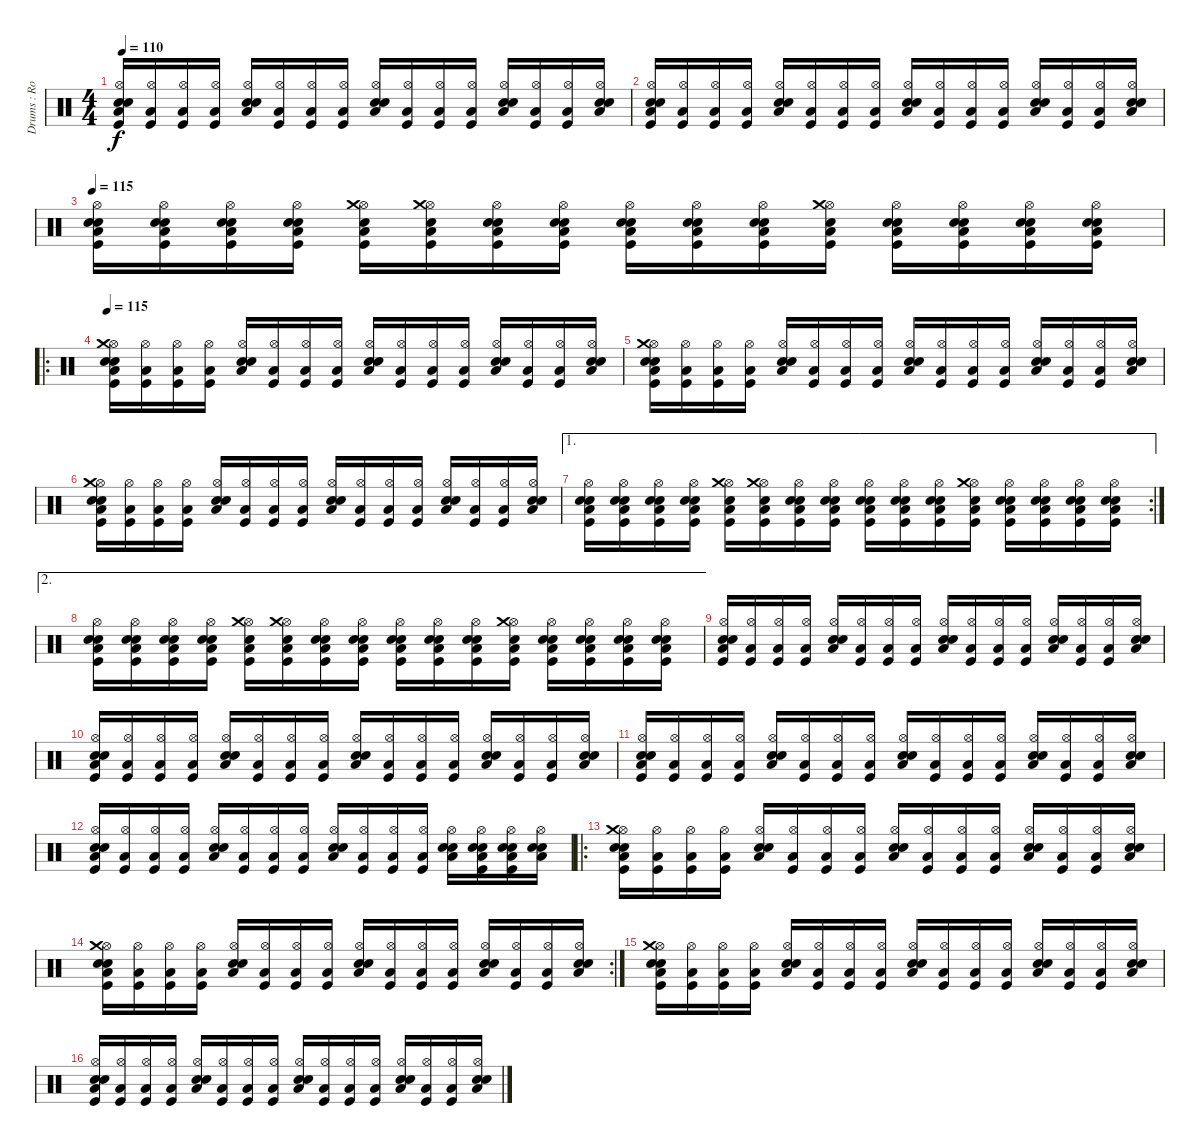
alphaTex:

\track ("Drums : Rob Kurth" "Drums : Ro") {instrument percussion}
\staff {score}
\articulation defaults
\ts (4 4)
\tempo 110
\clef neutral
\ks c
("Low Floor Tom (hit)" "Hi-Hat (open)" "Electric Snare (hit)" "Kick (hit)" "Snare (hit) 2").16{dy f} ("Low Floor Tom (hit)" "Hi-Hat (open)" "Kick (hit)").16 ("Low Floor Tom (hit)" "Hi-Hat (open)" "Kick (hit)").16 ("Low Floor Tom (hit)" "Hi-Hat (open)" "Kick (hit)").16 ("Low Floor Tom (hit)" "Hi-Hat (open)" "Electric Snare (hit)" "Snare (hit) 2").16 ("Low Floor Tom (hit)" "Hi-Hat (open)" "Kick (hit)").16 ("Low Floor Tom (hit)" "Hi-Hat (open)" "Kick (hit)").16 ("Low Floor Tom (hit)" "Hi-Hat (open)" "Kick (hit)").16 ("Low Floor Tom (hit)" "Hi-Hat (open)" "Electric Snare (hit)" "Snare (hit) 2").16 ("Low Floor Tom (hit)" "Hi-Hat (open)" "Kick (hit)").16 ("Low Floor Tom (hit)" "Hi-Hat (open)" "Kick (hit)").16 ("Low Floor Tom (hit)" "Hi-Hat (open)" "Kick (hit)").16 ("Low Floor Tom (hit)" "Hi-Hat (open)" "Electric Snare (hit)" "Snare (hit) 2").16 ("Low Floor Tom (hit)" "Hi-Hat (open)" "Kick (hit)").16 ("Low Floor Tom (hit)" "Hi-Hat (open)" "Kick (hit)").16 ("Low Floor Tom (hit)" "Hi-Hat (open)" "Electric Snare (hit)" "Snare (hit) 2").16 |
("Low Floor Tom (hit)" "Hi-Hat (open)" "Electric Snare (hit)" "Kick (hit)" "Snare (hit) 2").16 ("Low Floor Tom (hit)" "Hi-Hat (open)" "Kick (hit)").16 ("Low Floor Tom (hit)" "Hi-Hat (open)" "Kick (hit)").16 ("Low Floor Tom (hit)" "Hi-Hat (open)" "Kick (hit)").16 ("Low Floor Tom (hit)" "Hi-Hat (open)" "Electric Snare (hit)" "Snare (hit) 2").16 ("Low Floor Tom (hit)" "Hi-Hat (open)" "Kick (hit)").16 ("Low Floor Tom (hit)" "Hi-Hat (open)" "Kick (hit)").16 ("Low Floor Tom (hit)" "Hi-Hat (open)" "Kick (hit)").16 ("Low Floor Tom (hit)" "Hi-Hat (open)" "Electric Snare (hit)" "Snare (hit) 2").16 ("Low Floor Tom (hit)" "Hi-Hat (open)" "Kick (hit)").16 ("Low Floor Tom (hit)" "Hi-Hat (open)" "Kick (hit)").16 ("Low Floor Tom (hit)" "Hi-Hat (open)" "Kick (hit)").16 ("Low Floor Tom (hit)" "Hi-Hat (open)" "Electric Snare (hit)" "Snare (hit) 2").16 ("Low Floor Tom (hit)" "Hi-Hat (open)" "Kick (hit)").16 ("Low Floor Tom (hit)" "Hi-Hat (open)" "Kick (hit)").16 ("Low Floor Tom (hit)" "Hi-Hat (open)" "Electric Snare (hit)" "Snare (hit) 2").16 |
\tempo 115
("Kick (hit)" "Low Floor Tom (hit)" "Hi-Hat (open)" "Electric Snare (hit)" "Snare (hit) 2").16 ("Kick (hit)" "Low Floor Tom (hit)" "Hi-Hat (open)" "Electric Snare (hit)" "Snare (hit) 2").16 ("Kick (hit)" "Low Floor Tom (hit)" "Hi-Hat (open)" "Electric Snare (hit)" "Snare (hit) 2").16 ("Kick (hit)" "Low Floor Tom (hit)" "Hi-Hat (open)" "Electric Snare (hit)" "Snare (hit) 2").16 ("Kick (hit)" "Low Floor Tom (hit)" "Hi-Hat (open)" "Crash medium (hit)" "Snare (hit) 2").16 ("Kick (hit)" "Low Floor Tom (hit)" "Hi-Hat (open)" "Crash medium (hit)" "Snare (hit) 2").16 ("Kick (hit)" "Low Floor Tom (hit)" "Hi-Hat (open)" "Electric Snare (hit)" "Snare (hit) 2").16 ("Kick (hit)" "Low Floor Tom (hit)" "Hi-Hat (open)" "Electric Snare (hit)" "Snare (hit) 2").16 ("Kick (hit)" "Low Floor Tom (hit)" "Hi-Hat (open)" "Electric Snare (hit)" "Snare (hit) 2").16 ("Kick (hit)" "Low Floor Tom (hit)" "Hi-Hat (open)" "Electric Snare (hit)" "Snare (hit) 2").16 ("Kick (hit)" "Low Floor Tom (hit)" "Hi-Hat (open)" "Electric Snare (hit)" "Snare (hit) 2").16 ("Kick (hit)" "Low Floor Tom (hit)" "Hi-Hat (open)" "Crash medium (hit)" "Snare (hit) 2").16 ("Kick (hit)" "Low Floor Tom (hit)" "Hi-Hat (open)" "Electric Snare (hit)" "Snare (hit) 2").16 ("Kick (hit)" "Low Floor Tom (hit)" "Hi-Hat (open)" "Electric Snare (hit)" "Snare (hit) 2").16 ("Kick (hit)" "Low Floor Tom (hit)" "Hi-Hat (open)" "Electric Snare (hit)" "Snare (hit) 2").16 ("Kick (hit)" "Low Floor Tom (hit)" "Hi-Hat (open)" "Electric Snare (hit)" "Snare (hit) 2").16 |
\ro
\tempo 115
("Low Floor Tom (hit)" "Hi-Hat (open)" "Electric Snare (hit)" "Kick (hit)" "Snare (hit) 2" "Crash medium (hit)").16 ("Low Floor Tom (hit)" "Hi-Hat (open)" "Kick (hit)").16 ("Low Floor Tom (hit)" "Hi-Hat (open)" "Kick (hit)").16 ("Low Floor Tom (hit)" "Hi-Hat (open)" "Kick (hit)").16 ("Low Floor Tom (hit)" "Hi-Hat (open)" "Electric Snare (hit)" "Snare (hit) 2").16 ("Low Floor Tom (hit)" "Hi-Hat (open)" "Kick (hit)").16 ("Low Floor Tom (hit)" "Hi-Hat (open)" "Kick (hit)").16 ("Low Floor Tom (hit)" "Hi-Hat (open)" "Kick (hit)").16 ("Low Floor Tom (hit)" "Hi-Hat (open)" "Electric Snare (hit)" "Snare (hit) 2").16 ("Low Floor Tom (hit)" "Hi-Hat (open)" "Kick (hit)").16 ("Low Floor Tom (hit)" "Hi-Hat (open)" "Kick (hit)").16 ("Low Floor Tom (hit)" "Hi-Hat (open)" "Kick (hit)").16 ("Low Floor Tom (hit)" "Hi-Hat (open)" "Electric Snare (hit)" "Snare (hit) 2").16 ("Low Floor Tom (hit)" "Hi-Hat (open)" "Kick (hit)").16 ("Low Floor Tom (hit)" "Hi-Hat (open)" "Kick (hit)").16 ("Low Floor Tom (hit)" "Hi-Hat (open)" "Electric Snare (hit)" "Snare (hit) 2").16 |
("Low Floor Tom (hit)" "Hi-Hat (open)" "Electric Snare (hit)" "Kick (hit)" "Snare (hit) 2" "Crash medium (hit)").16 ("Low Floor Tom (hit)" "Hi-Hat (open)" "Kick (hit)").16 ("Low Floor Tom (hit)" "Hi-Hat (open)" "Kick (hit)").16 ("Low Floor Tom (hit)" "Hi-Hat (open)" "Kick (hit)").16 ("Low Floor Tom (hit)" "Hi-Hat (open)" "Electric Snare (hit)" "Snare (hit) 2").16 ("Low Floor Tom (hit)" "Hi-Hat (open)" "Kick (hit)").16 ("Low Floor Tom (hit)" "Hi-Hat (open)" "Kick (hit)").16 ("Low Floor Tom (hit)" "Hi-Hat (open)" "Kick (hit)").16 ("Low Floor Tom (hit)" "Hi-Hat (open)" "Electric Snare (hit)" "Snare (hit) 2").16 ("Low Floor Tom (hit)" "Hi-Hat (open)" "Kick (hit)").16 ("Low Floor Tom (hit)" "Hi-Hat (open)" "Kick (hit)").16 ("Low Floor Tom (hit)" "Hi-Hat (open)" "Kick (hit)").16 ("Low Floor Tom (hit)" "Hi-Hat (open)" "Electric Snare (hit)" "Snare (hit) 2").16 ("Low Floor Tom (hit)" "Hi-Hat (open)" "Kick (hit)").16 ("Low Floor Tom (hit)" "Hi-Hat (open)" "Kick (hit)").16 ("Low Floor Tom (hit)" "Hi-Hat (open)" "Electric Snare (hit)" "Snare (hit) 2").16 |
("Low Floor Tom (hit)" "Hi-Hat (open)" "Electric Snare (hit)" "Kick (hit)" "Snare (hit) 2" "Crash medium (hit)").16 ("Low Floor Tom (hit)" "Hi-Hat (open)" "Kick (hit)").16 ("Low Floor Tom (hit)" "Hi-Hat (open)" "Kick (hit)").16 ("Low Floor Tom (hit)" "Hi-Hat (open)" "Kick (hit)").16 ("Low Floor Tom (hit)" "Hi-Hat (open)" "Electric Snare (hit)" "Snare (hit) 2").16 ("Low Floor Tom (hit)" "Hi-Hat (open)" "Kick (hit)").16 ("Low Floor Tom (hit)" "Hi-Hat (open)" "Kick (hit)").16 ("Low Floor Tom (hit)" "Hi-Hat (open)" "Kick (hit)").16 ("Low Floor Tom (hit)" "Hi-Hat (open)" "Electric Snare (hit)" "Snare (hit) 2").16 ("Low Floor Tom (hit)" "Hi-Hat (open)" "Kick (hit)").16 ("Low Floor Tom (hit)" "Hi-Hat (open)" "Kick (hit)").16 ("Low Floor Tom (hit)" "Hi-Hat (open)" "Kick (hit)").16 ("Low Floor Tom (hit)" "Hi-Hat (open)" "Electric Snare (hit)" "Snare (hit) 2").16 ("Low Floor Tom (hit)" "Hi-Hat (open)" "Kick (hit)").16 ("Low Floor Tom (hit)" "Hi-Hat (open)" "Kick (hit)").16 ("Low Floor Tom (hit)" "Hi-Hat (open)" "Electric Snare (hit)" "Snare (hit) 2").16 |
\ae 1
\rc 2
("Kick (hit)" "Low Floor Tom (hit)" "Hi-Hat (open)" "Electric Snare (hit)" "Snare (hit) 2").16 ("Kick (hit)" "Low Floor Tom (hit)" "Hi-Hat (open)" "Electric Snare (hit)" "Snare (hit) 2").16 ("Kick (hit)" "Low Floor Tom (hit)" "Hi-Hat (open)" "Electric Snare (hit)" "Snare (hit) 2").16 ("Kick (hit)" "Low Floor Tom (hit)" "Hi-Hat (open)" "Electric Snare (hit)" "Snare (hit) 2").16 ("Kick (hit)" "Low Floor Tom (hit)" "Hi-Hat (open)" "Crash medium (hit)" "Snare (hit) 2").16 ("Kick (hit)" "Low Floor Tom (hit)" "Hi-Hat (open)" "Crash medium (hit)" "Snare (hit) 2").16 ("Kick (hit)" "Low Floor Tom (hit)" "Hi-Hat (open)" "Electric Snare (hit)" "Snare (hit) 2").16 ("Kick (hit)" "Low Floor Tom (hit)" "Hi-Hat (open)" "Electric Snare (hit)" "Snare (hit) 2").16 ("Kick (hit)" "Low Floor Tom (hit)" "Hi-Hat (open)" "Electric Snare (hit)" "Snare (hit) 2").16 ("Kick (hit)" "Low Floor Tom (hit)" "Hi-Hat (open)" "Electric Snare (hit)" "Snare (hit) 2").16 ("Kick (hit)" "Low Floor Tom (hit)" "Hi-Hat (open)" "Electric Snare (hit)" "Snare (hit) 2").16 ("Kick (hit)" "Low Floor Tom (hit)" "Hi-Hat (open)" "Crash medium (hit)" "Snare (hit) 2").16 ("Kick (hit)" "Low Floor Tom (hit)" "Hi-Hat (open)" "Electric Snare (hit)" "Snare (hit) 2").16 ("Kick (hit)" "Low Floor Tom (hit)" "Hi-Hat (open)" "Electric Snare (hit)" "Snare (hit) 2").16 ("Kick (hit)" "Low Floor Tom (hit)" "Hi-Hat (open)" "Electric Snare (hit)" "Snare (hit) 2").16 ("Kick (hit)" "Low Floor Tom (hit)" "Hi-Hat (open)" "Electric Snare (hit)" "Snare (hit) 2").16 |
\ae 2
("Kick (hit)" "Low Floor Tom (hit)" "Hi-Hat (open)" "Electric Snare (hit)" "Snare (hit) 2").16 ("Kick (hit)" "Low Floor Tom (hit)" "Hi-Hat (open)" "Electric Snare (hit)" "Snare (hit) 2").16 ("Kick (hit)" "Low Floor Tom (hit)" "Hi-Hat (open)" "Electric Snare (hit)" "Snare (hit) 2").16 ("Kick (hit)" "Low Floor Tom (hit)" "Hi-Hat (open)" "Electric Snare (hit)" "Snare (hit) 2").16 ("Kick (hit)" "Low Floor Tom (hit)" "Hi-Hat (open)" "Crash medium (hit)" "Snare (hit) 2").16 ("Kick (hit)" "Low Floor Tom (hit)" "Hi-Hat (open)" "Crash medium (hit)" "Snare (hit) 2").16 ("Kick (hit)" "Low Floor Tom (hit)" "Hi-Hat (open)" "Electric Snare (hit)" "Snare (hit) 2").16 ("Kick (hit)" "Low Floor Tom (hit)" "Hi-Hat (open)" "Electric Snare (hit)" "Snare (hit) 2").16 ("Kick (hit)" "Low Floor Tom (hit)" "Hi-Hat (open)" "Electric Snare (hit)" "Snare (hit) 2").16 ("Kick (hit)" "Low Floor Tom (hit)" "Hi-Hat (open)" "Electric Snare (hit)" "Snare (hit) 2").16 ("Kick (hit)" "Low Floor Tom (hit)" "Hi-Hat (open)" "Electric Snare (hit)" "Snare (hit) 2").16 ("Kick (hit)" "Low Floor Tom (hit)" "Hi-Hat (open)" "Crash medium (hit)" "Snare (hit) 2").16 ("Kick (hit)" "Low Floor Tom (hit)" "Hi-Hat (open)" "Electric Snare (hit)" "Snare (hit) 2").16 ("Kick (hit)" "Low Floor Tom (hit)" "Hi-Hat (open)" "Electric Snare (hit)" "Snare (hit) 2").16 ("Kick (hit)" "Low Floor Tom (hit)" "Hi-Hat (open)" "Electric Snare (hit)" "Snare (hit) 2").16 ("Kick (hit)" "Low Floor Tom (hit)" "Hi-Hat (open)" "Electric Snare (hit)" "Snare (hit) 2").16 |
("Low Floor Tom (hit)" "Hi-Hat (open)" "Electric Snare (hit)" "Kick (hit)" "Snare (hit) 2").16 ("Low Floor Tom (hit)" "Hi-Hat (open)" "Kick (hit)").16 ("Low Floor Tom (hit)" "Hi-Hat (open)" "Kick (hit)").16 ("Low Floor Tom (hit)" "Hi-Hat (open)" "Kick (hit)").16 ("Low Floor Tom (hit)" "Hi-Hat (open)" "Electric Snare (hit)" "Snare (hit) 2").16 ("Low Floor Tom (hit)" "Hi-Hat (open)" "Kick (hit)").16 ("Low Floor Tom (hit)" "Hi-Hat (open)" "Kick (hit)").16 ("Low Floor Tom (hit)" "Hi-Hat (open)" "Kick (hit)").16 ("Low Floor Tom (hit)" "Hi-Hat (open)" "Electric Snare (hit)" "Snare (hit) 2").16 ("Low Floor Tom (hit)" "Hi-Hat (open)" "Kick (hit)").16 ("Low Floor Tom (hit)" "Hi-Hat (open)" "Kick (hit)").16 ("Low Floor Tom (hit)" "Hi-Hat (open)" "Kick (hit)").16 ("Low Floor Tom (hit)" "Hi-Hat (open)" "Electric Snare (hit)" "Snare (hit) 2").16 ("Low Floor Tom (hit)" "Hi-Hat (open)" "Kick (hit)").16 ("Low Floor Tom (hit)" "Hi-Hat (open)" "Kick (hit)").16 ("Low Floor Tom (hit)" "Hi-Hat (open)" "Electric Snare (hit)" "Snare (hit) 2").16 |
("Low Floor Tom (hit)" "Hi-Hat (open)" "Electric Snare (hit)" "Kick (hit)" "Snare (hit) 2").16 ("Low Floor Tom (hit)" "Hi-Hat (open)" "Kick (hit)").16 ("Low Floor Tom (hit)" "Hi-Hat (open)" "Kick (hit)").16 ("Low Floor Tom (hit)" "Hi-Hat (open)" "Kick (hit)").16 ("Low Floor Tom (hit)" "Hi-Hat (open)" "Electric Snare (hit)" "Snare (hit) 2").16 ("Low Floor Tom (hit)" "Hi-Hat (open)" "Kick (hit)").16 ("Low Floor Tom (hit)" "Hi-Hat (open)" "Kick (hit)").16 ("Low Floor Tom (hit)" "Hi-Hat (open)" "Kick (hit)").16 ("Low Floor Tom (hit)" "Hi-Hat (open)" "Electric Snare (hit)" "Snare (hit) 2").16 ("Low Floor Tom (hit)" "Hi-Hat (open)" "Kick (hit)").16 ("Low Floor Tom (hit)" "Hi-Hat (open)" "Kick (hit)").16 ("Low Floor Tom (hit)" "Hi-Hat (open)" "Kick (hit)").16 ("Low Floor Tom (hit)" "Hi-Hat (open)" "Electric Snare (hit)" "Snare (hit) 2").16 ("Low Floor Tom (hit)" "Hi-Hat (open)" "Kick (hit)").16 ("Low Floor Tom (hit)" "Hi-Hat (open)" "Kick (hit)").16 ("Low Floor Tom (hit)" "Hi-Hat (open)" "Electric Snare (hit)" "Snare (hit) 2").16 |
("Low Floor Tom (hit)" "Hi-Hat (open)" "Electric Snare (hit)" "Kick (hit)" "Snare (hit) 2").16 ("Low Floor Tom (hit)" "Hi-Hat (open)" "Kick (hit)").16 ("Low Floor Tom (hit)" "Hi-Hat (open)" "Kick (hit)").16 ("Low Floor Tom (hit)" "Hi-Hat (open)" "Kick (hit)").16 ("Low Floor Tom (hit)" "Hi-Hat (open)" "Electric Snare (hit)" "Snare (hit) 2").16 ("Low Floor Tom (hit)" "Hi-Hat (open)" "Kick (hit)").16 ("Low Floor Tom (hit)" "Hi-Hat (open)" "Kick (hit)").16 ("Low Floor Tom (hit)" "Hi-Hat (open)" "Kick (hit)").16 ("Low Floor Tom (hit)" "Hi-Hat (open)" "Electric Snare (hit)" "Snare (hit) 2").16 ("Low Floor Tom (hit)" "Hi-Hat (open)" "Kick (hit)").16 ("Low Floor Tom (hit)" "Hi-Hat (open)" "Kick (hit)").16 ("Low Floor Tom (hit)" "Hi-Hat (open)" "Kick (hit)").16 ("Low Floor Tom (hit)" "Hi-Hat (open)" "Electric Snare (hit)" "Snare (hit) 2").16 ("Low Floor Tom (hit)" "Hi-Hat (open)" "Kick (hit)").16 ("Low Floor Tom (hit)" "Hi-Hat (open)" "Kick (hit)").16 ("Low Floor Tom (hit)" "Hi-Hat (open)" "Electric Snare (hit)" "Snare (hit) 2").16 |
("Low Floor Tom (hit)" "Hi-Hat (open)" "Electric Snare (hit)" "Kick (hit)" "Snare (hit) 2").16 ("Low Floor Tom (hit)" "Hi-Hat (open)" "Kick (hit)").16 ("Low Floor Tom (hit)" "Hi-Hat (open)" "Kick (hit)").16 ("Low Floor Tom (hit)" "Hi-Hat (open)" "Kick (hit)").16 ("Low Floor Tom (hit)" "Hi-Hat (open)" "Electric Snare (hit)" "Snare (hit) 2").16 ("Low Floor Tom (hit)" "Hi-Hat (open)" "Kick (hit)").16 ("Low Floor Tom (hit)" "Hi-Hat (open)" "Kick (hit)").16 ("Low Floor Tom (hit)" "Hi-Hat (open)" "Kick (hit)").16 ("Low Floor Tom (hit)" "Hi-Hat (open)" "Electric Snare (hit)" "Snare (hit) 2").16 ("Low Floor Tom (hit)" "Hi-Hat (open)" "Kick (hit)").16 ("Low Floor Tom (hit)" "Hi-Hat (open)" "Kick (hit)").16 ("Low Floor Tom (hit)" "Hi-Hat (open)" "Kick (hit)").16 ("Low Floor Tom (hit)" "Hi-Hat (open)" "Electric Snare (hit)" "Snare (hit) 2").16 ("Electric Snare (hit)" "Snare (hit) 2" "Low Floor Tom (hit)" "Hi-Hat (open)" "Kick (hit)").16 ("Electric Snare (hit)" "Snare (hit) 2" "Low Floor Tom (hit)" "Hi-Hat (open)" "Kick (hit)").16 ("Low Floor Tom (hit)" "Hi-Hat (open)" "Electric Snare (hit)" "Snare (hit) 2").16 |
\ro
("Low Floor Tom (hit)" "Hi-Hat (open)" "Electric Snare (hit)" "Kick (hit)" "Snare (hit) 2" "Crash medium (hit)").16 ("Low Floor Tom (hit)" "Hi-Hat (open)" "Kick (hit)").16 ("Low Floor Tom (hit)" "Hi-Hat (open)" "Kick (hit)").16 ("Low Floor Tom (hit)" "Hi-Hat (open)" "Kick (hit)").16 ("Low Floor Tom (hit)" "Hi-Hat (open)" "Electric Snare (hit)" "Snare (hit) 2").16 ("Low Floor Tom (hit)" "Hi-Hat (open)" "Kick (hit)").16 ("Low Floor Tom (hit)" "Hi-Hat (open)" "Kick (hit)").16 ("Low Floor Tom (hit)" "Hi-Hat (open)" "Kick (hit)").16 ("Low Floor Tom (hit)" "Hi-Hat (open)" "Electric Snare (hit)" "Snare (hit) 2").16 ("Low Floor Tom (hit)" "Hi-Hat (open)" "Kick (hit)").16 ("Low Floor Tom (hit)" "Hi-Hat (open)" "Kick (hit)").16 ("Low Floor Tom (hit)" "Hi-Hat (open)" "Kick (hit)").16 ("Low Floor Tom (hit)" "Hi-Hat (open)" "Electric Snare (hit)" "Snare (hit) 2").16 ("Low Floor Tom (hit)" "Hi-Hat (open)" "Kick (hit)").16 ("Low Floor Tom (hit)" "Hi-Hat (open)" "Kick (hit)").16 ("Low Floor Tom (hit)" "Hi-Hat (open)" "Electric Snare (hit)" "Snare (hit) 2").16 |
\rc 2
("Low Floor Tom (hit)" "Hi-Hat (open)" "Electric Snare (hit)" "Kick (hit)" "Snare (hit) 2" "Crash medium (hit)").16 ("Low Floor Tom (hit)" "Hi-Hat (open)" "Kick (hit)").16 ("Low Floor Tom (hit)" "Hi-Hat (open)" "Kick (hit)").16 ("Low Floor Tom (hit)" "Hi-Hat (open)" "Kick (hit)").16 ("Low Floor Tom (hit)" "Hi-Hat (open)" "Electric Snare (hit)" "Snare (hit) 2").16 ("Low Floor Tom (hit)" "Hi-Hat (open)" "Kick (hit)").16 ("Low Floor Tom (hit)" "Hi-Hat (open)" "Kick (hit)").16 ("Low Floor Tom (hit)" "Hi-Hat (open)" "Kick (hit)").16 ("Low Floor Tom (hit)" "Hi-Hat (open)" "Electric Snare (hit)" "Snare (hit) 2").16 ("Low Floor Tom (hit)" "Hi-Hat (open)" "Kick (hit)").16 ("Low Floor Tom (hit)" "Hi-Hat (open)" "Kick (hit)").16 ("Low Floor Tom (hit)" "Hi-Hat (open)" "Kick (hit)").16 ("Low Floor Tom (hit)" "Hi-Hat (open)" "Electric Snare (hit)" "Snare (hit) 2").16 ("Low Floor Tom (hit)" "Hi-Hat (open)" "Kick (hit)").16 ("Low Floor Tom (hit)" "Hi-Hat (open)" "Kick (hit)").16 ("Low Floor Tom (hit)" "Hi-Hat (open)" "Electric Snare (hit)" "Snare (hit) 2").16 |
("Low Floor Tom (hit)" "Hi-Hat (open)" "Electric Snare (hit)" "Kick (hit)" "Snare (hit) 2" "Crash medium (hit)").16 ("Low Floor Tom (hit)" "Hi-Hat (open)" "Kick (hit)").16 ("Low Floor Tom (hit)" "Hi-Hat (open)" "Kick (hit)").16 ("Low Floor Tom (hit)" "Hi-Hat (open)" "Kick (hit)").16 ("Low Floor Tom (hit)" "Hi-Hat (open)" "Electric Snare (hit)" "Snare (hit) 2").16 ("Low Floor Tom (hit)" "Hi-Hat (open)" "Kick (hit)").16 ("Low Floor Tom (hit)" "Hi-Hat (open)" "Kick (hit)").16 ("Low Floor Tom (hit)" "Hi-Hat (open)" "Kick (hit)").16 ("Low Floor Tom (hit)" "Hi-Hat (open)" "Electric Snare (hit)" "Snare (hit) 2").16 ("Low Floor Tom (hit)" "Hi-Hat (open)" "Kick (hit)").16 ("Low Floor Tom (hit)" "Hi-Hat (open)" "Kick (hit)").16 ("Low Floor Tom (hit)" "Hi-Hat (open)" "Kick (hit)").16 ("Low Floor Tom (hit)" "Hi-Hat (open)" "Electric Snare (hit)" "Snare (hit) 2").16 ("Low Floor Tom (hit)" "Hi-Hat (open)" "Kick (hit)").16 ("Low Floor Tom (hit)" "Hi-Hat (open)" "Kick (hit)").16 ("Low Floor Tom (hit)" "Hi-Hat (open)" "Electric Snare (hit)" "Snare (hit) 2").16 |
("Low Floor Tom (hit)" "Hi-Hat (open)" "Electric Snare (hit)" "Kick (hit)" "Snare (hit) 2").16 ("Low Floor Tom (hit)" "Hi-Hat (open)" "Kick (hit)").16 ("Low Floor Tom (hit)" "Hi-Hat (open)" "Kick (hit)").16 ("Low Floor Tom (hit)" "Hi-Hat (open)" "Kick (hit)").16 ("Low Floor Tom (hit)" "Hi-Hat (open)" "Electric Snare (hit)" "Snare (hit) 2").16 ("Low Floor Tom (hit)" "Hi-Hat (open)" "Kick (hit)").16 ("Low Floor Tom (hit)" "Hi-Hat (open)" "Kick (hit)").16 ("Low Floor Tom (hit)" "Hi-Hat (open)" "Kick (hit)").16 ("Low Floor Tom (hit)" "Hi-Hat (open)" "Electric Snare (hit)" "Snare (hit) 2").16 ("Low Floor Tom (hit)" "Hi-Hat (open)" "Kick (hit)").16 ("Low Floor Tom (hit)" "Hi-Hat (open)" "Kick (hit)").16 ("Low Floor Tom (hit)" "Hi-Hat (open)" "Kick (hit)").16 ("Low Floor Tom (hit)" "Hi-Hat (open)" "Electric Snare (hit)" "Snare (hit) 2").16 ("Low Floor Tom (hit)" "Hi-Hat (open)" "Kick (hit)").16 ("Low Floor Tom (hit)" "Hi-Hat (open)" "Kick (hit)").16 ("Low Floor Tom (hit)" "Hi-Hat (open)" "Electric Snare (hit)" "Snare (hit) 2").16
